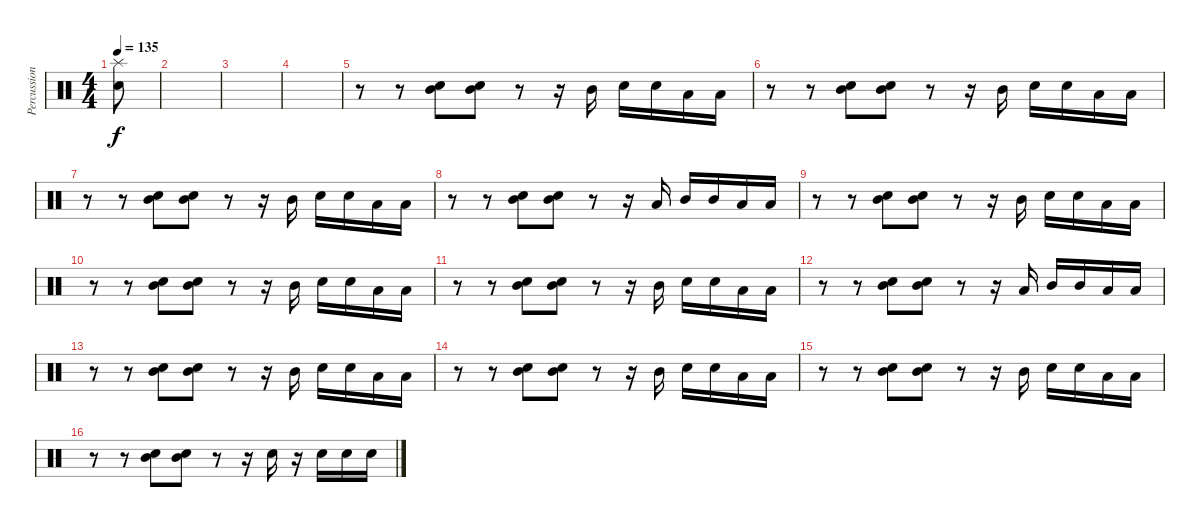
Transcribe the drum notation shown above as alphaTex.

\track ("Percussion" "Percussion") {instrument percussion}
\staff {score}
\articulation defaults
\ts (4 4)
\tempo 135
\clef neutral
\ks c
("Snare (hit) 2" "Splash (hit)").8{dy f} |
|
|
|
r.8 r.8 ("Snare (hit) 2" "Mid Tom (hit)").8 ("Snare (hit) 2" "Mid Tom (hit)").8 r.8 r.16 "Mid Tom (hit)".16 "Snare (hit) 2".16 "Snare (hit) 2".16 "Low Tom (hit)".16 "Low Tom (hit)".16 |
r.8 r.8 ("Snare (hit) 2" "Mid Tom (hit)").8 ("Snare (hit) 2" "Mid Tom (hit)").8 r.8 r.16 "Mid Tom (hit)".16 "Snare (hit) 2".16 "Snare (hit) 2".16 "Low Tom (hit)".16 "Low Tom (hit)".16 |
r.8 r.8 ("Snare (hit) 2" "Mid Tom (hit)").8 ("Snare (hit) 2" "Mid Tom (hit)").8 r.8 r.16 "Mid Tom (hit)".16 "Snare (hit) 2".16 "Snare (hit) 2".16 "Low Tom (hit)".16 "Low Tom (hit)".16 |
r.8 r.8 ("Snare (hit) 2" "Mid Tom (hit)").8 ("Snare (hit) 2" "Mid Tom (hit)").8 r.8 r.16 "Low Tom (hit)".16 "Mid Tom (hit)".16 "Mid Tom (hit)".16 "Low Tom (hit)".16 "Low Tom (hit)".16 |
r.8 r.8 ("Snare (hit) 2" "Mid Tom (hit)").8 ("Snare (hit) 2" "Mid Tom (hit)").8 r.8 r.16 "Mid Tom (hit)".16 "Snare (hit) 2".16 "Snare (hit) 2".16 "Low Tom (hit)".16 "Low Tom (hit)".16 |
r.8 r.8 ("Snare (hit) 2" "Mid Tom (hit)").8 ("Snare (hit) 2" "Mid Tom (hit)").8 r.8 r.16 "Mid Tom (hit)".16 "Snare (hit) 2".16 "Snare (hit) 2".16 "Low Tom (hit)".16 "Low Tom (hit)".16 |
r.8 r.8 ("Snare (hit) 2" "Mid Tom (hit)").8 ("Snare (hit) 2" "Mid Tom (hit)").8 r.8 r.16 "Mid Tom (hit)".16 "Snare (hit) 2".16 "Snare (hit) 2".16 "Low Tom (hit)".16 "Low Tom (hit)".16 |
r.8 r.8 ("Snare (hit) 2" "Mid Tom (hit)").8 ("Snare (hit) 2" "Mid Tom (hit)").8 r.8 r.16 "Low Tom (hit)".16 "Mid Tom (hit)".16 "Mid Tom (hit)".16 "Low Tom (hit)".16 "Low Tom (hit)".16 |
r.8 r.8 ("Snare (hit) 2" "Mid Tom (hit)").8 ("Snare (hit) 2" "Mid Tom (hit)").8 r.8 r.16 "Mid Tom (hit)".16 "Snare (hit) 2".16 "Snare (hit) 2".16 "Low Tom (hit)".16 "Low Tom (hit)".16 |
r.8 r.8 ("Snare (hit) 2" "Mid Tom (hit)").8 ("Snare (hit) 2" "Mid Tom (hit)").8 r.8 r.16 "Mid Tom (hit)".16 "Snare (hit) 2".16 "Snare (hit) 2".16 "Low Tom (hit)".16 "Low Tom (hit)".16 |
r.8 r.8 ("Snare (hit) 2" "Mid Tom (hit)").8 ("Snare (hit) 2" "Mid Tom (hit)").8 r.8 r.16 "Mid Tom (hit)".16 "Snare (hit) 2".16 "Snare (hit) 2".16 "Low Tom (hit)".16 "Low Tom (hit)".16 |
r.8 r.8 ("Snare (hit) 2" "Mid Tom (hit)").8 ("Snare (hit) 2" "Mid Tom (hit)").8 r.8 r.16 "Snare (hit) 2".16 r.16 "Snare (hit) 2".16 "Snare (hit) 2".16 "Snare (hit) 2".16
